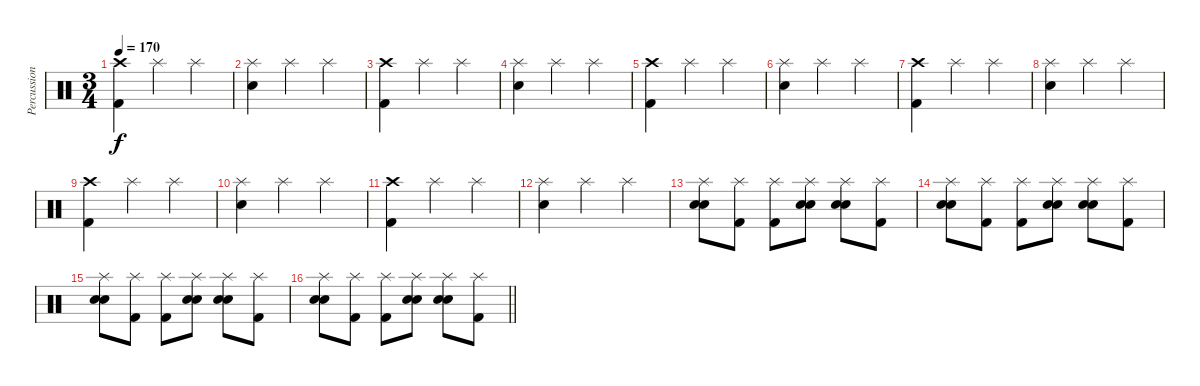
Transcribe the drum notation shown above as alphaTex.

\track ("Percussion" "Percussion") {instrument percussion}
\staff {score}
\articulation defaults
\ts (3 4)
\tempo 170
\clef neutral
\ks c
("Crash high (hit)" "Kick (hit) 2").4{dy f} "Splash (hit)".4 "Splash (hit)".4 |
("Splash (hit)" "Electric Snare (hit)").4 "Splash (hit)".4 "Splash (hit)".4 |
("Crash high (hit)" "Kick (hit) 2").4 "Splash (hit)".4 "Splash (hit)".4 |
("Splash (hit)" "Electric Snare (hit)").4 "Splash (hit)".4 "Splash (hit)".4 |
("Crash high (hit)" "Kick (hit) 2").4 "Splash (hit)".4 "Splash (hit)".4 |
("Splash (hit)" "Electric Snare (hit)").4 "Splash (hit)".4 "Splash (hit)".4 |
("Crash high (hit)" "Kick (hit) 2").4 "Splash (hit)".4 "Splash (hit)".4 |
("Splash (hit)" "Electric Snare (hit)").4 "Splash (hit)".4 "Splash (hit)".4 |
("Crash high (hit)" "Kick (hit) 2").4 "Splash (hit)".4 "Splash (hit)".4 |
("Splash (hit)" "Electric Snare (hit)").4 "Splash (hit)".4 "Splash (hit)".4 |
("Crash high (hit)" "Kick (hit) 2").4 "Splash (hit)".4 "Splash (hit)".4 |
("Splash (hit)" "Electric Snare (hit)").4 "Splash (hit)".4 "Splash (hit)".4 |
("Splash (hit)" "Electric Snare (hit)" "Electric Snare (hit)").8 ("Splash (hit)" "Kick (hit) 2").8 ("Splash (hit)" "Kick (hit) 2").8 ("Splash (hit)" "Electric Snare (hit)" "Electric Snare (hit)").8 ("Splash (hit)" "Electric Snare (hit)" "Electric Snare (hit)").8 ("Splash (hit)" "Kick (hit) 2").8 |
("Splash (hit)" "Electric Snare (hit)" "Electric Snare (hit)").8 ("Splash (hit)" "Kick (hit) 2").8 ("Splash (hit)" "Kick (hit) 2").8 ("Splash (hit)" "Electric Snare (hit)" "Electric Snare (hit)").8 ("Splash (hit)" "Electric Snare (hit)" "Electric Snare (hit)").8 ("Splash (hit)" "Kick (hit) 2").8 |
("Splash (hit)" "Electric Snare (hit)" "Electric Snare (hit)").8 ("Splash (hit)" "Kick (hit) 2").8 ("Splash (hit)" "Kick (hit) 2").8 ("Splash (hit)" "Electric Snare (hit)" "Electric Snare (hit)").8 ("Splash (hit)" "Electric Snare (hit)" "Electric Snare (hit)").8 ("Splash (hit)" "Kick (hit) 2").8 |
\barLineRight lightlight
("Splash (hit)" "Electric Snare (hit)" "Electric Snare (hit)").8 ("Splash (hit)" "Kick (hit) 2").8 ("Splash (hit)" "Kick (hit) 2").8 ("Splash (hit)" "Electric Snare (hit)" "Electric Snare (hit)").8 ("Splash (hit)" "Electric Snare (hit)" "Electric Snare (hit)").8 ("Splash (hit)" "Kick (hit) 2").8
